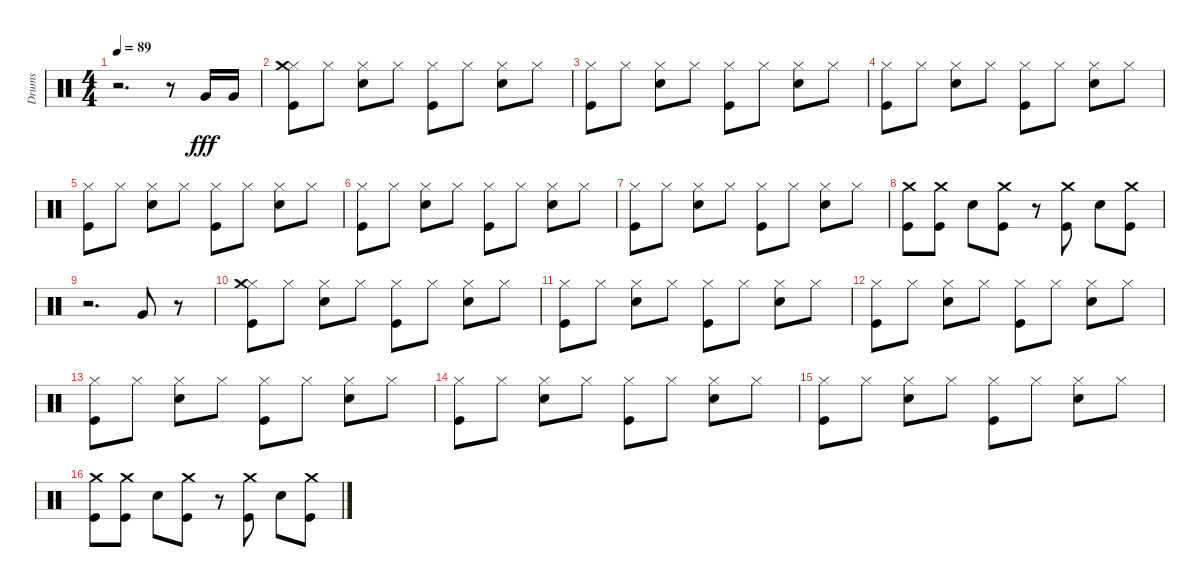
\track ("Drums" "Drums") {instrument percussion}
\staff {score}
\articulation defaults
\ts (4 4)
\tempo 89
\clef neutral
\ks c
r.2{d dy fff} r.8 "Very Low Tom (hit)".16 "Very Low Tom (hit)".16 |
("Kick (hit)" "Hi-Hat (closed)" "Crash medium (hit)").8 "Hi-Hat (closed)".8 ("Snare (hit) 2" "Hi-Hat (closed)").8 "Hi-Hat (closed)".8 ("Kick (hit)" "Hi-Hat (closed)").8 "Hi-Hat (closed)".8 ("Snare (hit) 2" "Hi-Hat (closed)").8 "Hi-Hat (closed)".8 |
("Kick (hit)" "Hi-Hat (closed)").8 "Hi-Hat (closed)".8 ("Snare (hit) 2" "Hi-Hat (closed)").8 "Hi-Hat (closed)".8 ("Kick (hit)" "Hi-Hat (closed)").8 "Hi-Hat (closed)".8 ("Snare (hit) 2" "Hi-Hat (closed)").8 "Hi-Hat (closed)".8 |
("Kick (hit)" "Hi-Hat (closed)").8 "Hi-Hat (closed)".8 ("Snare (hit) 2" "Hi-Hat (closed)").8 "Hi-Hat (closed)".8 ("Kick (hit)" "Hi-Hat (closed)").8 "Hi-Hat (closed)".8 ("Snare (hit) 2" "Hi-Hat (closed)").8 "Hi-Hat (closed)".8 |
("Kick (hit)" "Hi-Hat (closed)").8 "Hi-Hat (closed)".8 ("Snare (hit) 2" "Hi-Hat (closed)").8 "Hi-Hat (closed)".8 ("Kick (hit)" "Hi-Hat (closed)").8 "Hi-Hat (closed)".8 ("Snare (hit) 2" "Hi-Hat (closed)").8 "Hi-Hat (closed)".8 |
("Kick (hit)" "Hi-Hat (closed)").8 "Hi-Hat (closed)".8 ("Snare (hit) 2" "Hi-Hat (closed)").8 "Hi-Hat (closed)".8 ("Kick (hit)" "Hi-Hat (closed)").8 "Hi-Hat (closed)".8 ("Snare (hit) 2" "Hi-Hat (closed)").8 "Hi-Hat (closed)".8 |
("Kick (hit)" "Hi-Hat (closed)").8 "Hi-Hat (closed)".8 ("Snare (hit) 2" "Hi-Hat (closed)").8 "Hi-Hat (closed)".8 ("Kick (hit)" "Hi-Hat (closed)").8 "Hi-Hat (closed)".8 ("Snare (hit) 2" "Hi-Hat (closed)").8 "Hi-Hat (closed)".8 |
("Crash medium (hit)" "Kick (hit)").8 ("Crash medium (hit)" "Kick (hit)").8 "Snare (hit) 2".8 ("Crash medium (hit)" "Kick (hit)").8 r.8 ("Crash medium (hit)" "Kick (hit)").8 "Snare (hit) 2".8 ("Crash medium (hit)" "Kick (hit)").8 |
r.2{d} "Very Low Tom (hit)".8 r.8 |
("Kick (hit)" "Hi-Hat (closed)" "Crash medium (hit)").8 "Hi-Hat (closed)".8 ("Snare (hit) 2" "Hi-Hat (closed)").8 "Hi-Hat (closed)".8 ("Kick (hit)" "Hi-Hat (closed)").8 "Hi-Hat (closed)".8 ("Snare (hit) 2" "Hi-Hat (closed)").8 "Hi-Hat (closed)".8 |
("Kick (hit)" "Hi-Hat (closed)").8 "Hi-Hat (closed)".8 ("Snare (hit) 2" "Hi-Hat (closed)").8 "Hi-Hat (closed)".8 ("Kick (hit)" "Hi-Hat (closed)").8 "Hi-Hat (closed)".8 ("Snare (hit) 2" "Hi-Hat (closed)").8 "Hi-Hat (closed)".8 |
("Kick (hit)" "Hi-Hat (closed)").8 "Hi-Hat (closed)".8 ("Snare (hit) 2" "Hi-Hat (closed)").8 "Hi-Hat (closed)".8 ("Kick (hit)" "Hi-Hat (closed)").8 "Hi-Hat (closed)".8 ("Snare (hit) 2" "Hi-Hat (closed)").8 "Hi-Hat (closed)".8 |
("Kick (hit)" "Hi-Hat (closed)").8 "Hi-Hat (closed)".8 ("Snare (hit) 2" "Hi-Hat (closed)").8 "Hi-Hat (closed)".8 ("Kick (hit)" "Hi-Hat (closed)").8 "Hi-Hat (closed)".8 ("Snare (hit) 2" "Hi-Hat (closed)").8 "Hi-Hat (closed)".8 |
("Kick (hit)" "Hi-Hat (closed)").8 "Hi-Hat (closed)".8 ("Snare (hit) 2" "Hi-Hat (closed)").8 "Hi-Hat (closed)".8 ("Kick (hit)" "Hi-Hat (closed)").8 "Hi-Hat (closed)".8 ("Snare (hit) 2" "Hi-Hat (closed)").8 "Hi-Hat (closed)".8 |
("Kick (hit)" "Hi-Hat (closed)").8 "Hi-Hat (closed)".8 ("Snare (hit) 2" "Hi-Hat (closed)").8 "Hi-Hat (closed)".8 ("Kick (hit)" "Hi-Hat (closed)").8 "Hi-Hat (closed)".8 ("Snare (hit) 2" "Hi-Hat (closed)").8 "Hi-Hat (closed)".8 |
("Crash medium (hit)" "Kick (hit)").8 ("Crash medium (hit)" "Kick (hit)").8 "Snare (hit) 2".8 ("Crash medium (hit)" "Kick (hit)").8 r.8 ("Crash medium (hit)" "Kick (hit)").8 "Snare (hit) 2".8 ("Crash medium (hit)" "Kick (hit)").8
